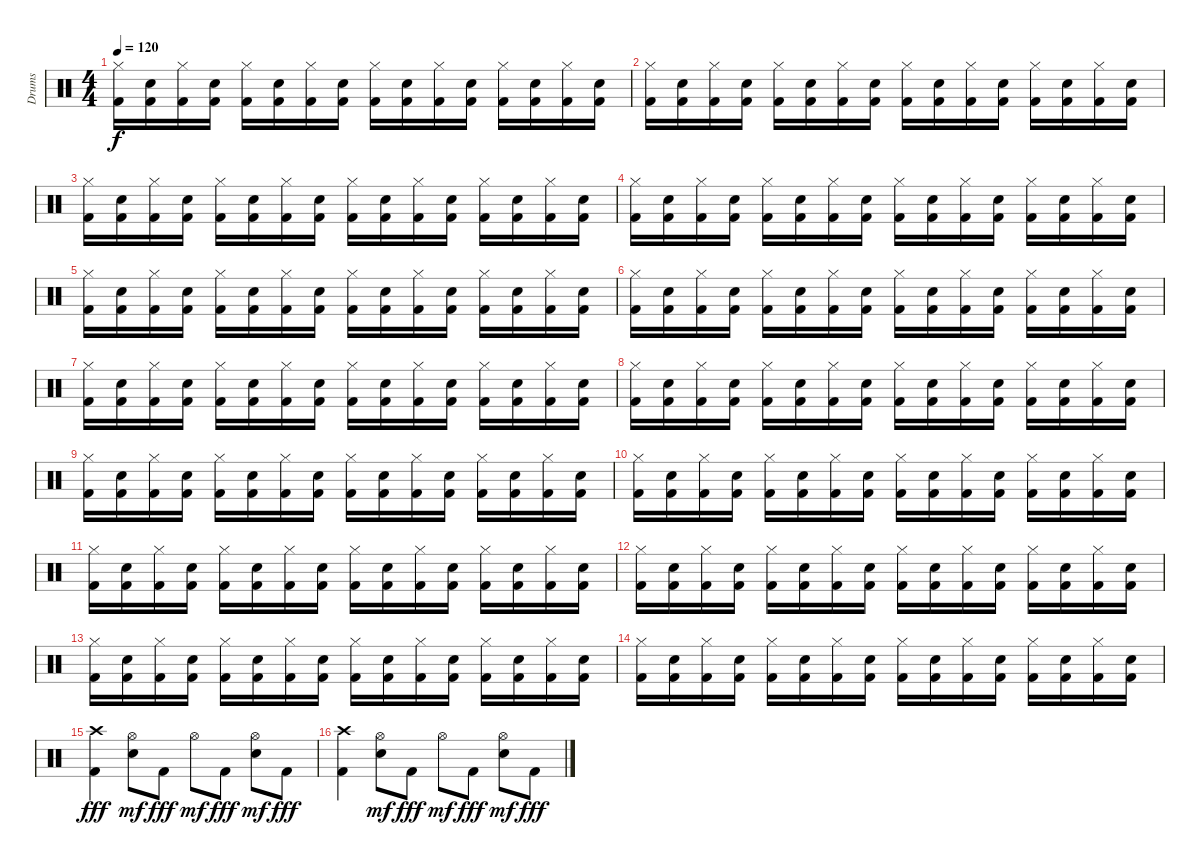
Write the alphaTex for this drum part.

\track ("Drums" "Drums") {instrument percussion}
\staff {score}
\articulation defaults
\ts (4 4)
\tempo 120
\clef neutral
\ks c
("Kick (hit) 2" "Hi-Hat (closed)").16{dy f} ("Kick (hit) 2" "Snare (hit) 2").16 ("Kick (hit) 2" "Hi-Hat (closed)").16 ("Kick (hit) 2" "Snare (hit) 2").16 ("Kick (hit) 2" "Hi-Hat (closed)").16 ("Kick (hit) 2" "Snare (hit) 2").16 ("Kick (hit) 2" "Hi-Hat (closed)").16 ("Kick (hit) 2" "Snare (hit) 2").16 ("Kick (hit) 2" "Hi-Hat (closed)").16 ("Kick (hit) 2" "Snare (hit) 2").16 ("Kick (hit) 2" "Hi-Hat (closed)").16 ("Kick (hit) 2" "Snare (hit) 2").16 ("Kick (hit) 2" "Hi-Hat (closed)").16 ("Kick (hit) 2" "Snare (hit) 2").16 ("Kick (hit) 2" "Hi-Hat (closed)").16 ("Kick (hit) 2" "Snare (hit) 2").16 |
("Kick (hit) 2" "Hi-Hat (closed)").16 ("Kick (hit) 2" "Snare (hit) 2").16 ("Kick (hit) 2" "Hi-Hat (closed)").16 ("Kick (hit) 2" "Snare (hit) 2").16 ("Kick (hit) 2" "Hi-Hat (closed)").16 ("Kick (hit) 2" "Snare (hit) 2").16 ("Kick (hit) 2" "Hi-Hat (closed)").16 ("Kick (hit) 2" "Snare (hit) 2").16 ("Kick (hit) 2" "Hi-Hat (closed)").16 ("Kick (hit) 2" "Snare (hit) 2").16 ("Kick (hit) 2" "Hi-Hat (closed)").16 ("Kick (hit) 2" "Snare (hit) 2").16 ("Kick (hit) 2" "Hi-Hat (closed)").16 ("Kick (hit) 2" "Snare (hit) 2").16 ("Kick (hit) 2" "Hi-Hat (closed)").16 ("Kick (hit) 2" "Snare (hit) 2").16 |
("Kick (hit) 2" "Hi-Hat (closed)").16 ("Kick (hit) 2" "Snare (hit) 2").16 ("Kick (hit) 2" "Hi-Hat (closed)").16 ("Kick (hit) 2" "Snare (hit) 2").16 ("Kick (hit) 2" "Hi-Hat (closed)").16 ("Kick (hit) 2" "Snare (hit) 2").16 ("Kick (hit) 2" "Hi-Hat (closed)").16 ("Kick (hit) 2" "Snare (hit) 2").16 ("Kick (hit) 2" "Hi-Hat (closed)").16 ("Kick (hit) 2" "Snare (hit) 2").16 ("Kick (hit) 2" "Hi-Hat (closed)").16 ("Kick (hit) 2" "Snare (hit) 2").16 ("Kick (hit) 2" "Hi-Hat (closed)").16 ("Kick (hit) 2" "Snare (hit) 2").16 ("Kick (hit) 2" "Hi-Hat (closed)").16 ("Kick (hit) 2" "Snare (hit) 2").16 |
("Kick (hit) 2" "Hi-Hat (closed)").16 ("Kick (hit) 2" "Snare (hit) 2").16 ("Kick (hit) 2" "Hi-Hat (closed)").16 ("Kick (hit) 2" "Snare (hit) 2").16 ("Kick (hit) 2" "Hi-Hat (closed)").16 ("Kick (hit) 2" "Snare (hit) 2").16 ("Kick (hit) 2" "Hi-Hat (closed)").16 ("Kick (hit) 2" "Snare (hit) 2").16 ("Kick (hit) 2" "Hi-Hat (closed)").16 ("Kick (hit) 2" "Snare (hit) 2").16 ("Kick (hit) 2" "Hi-Hat (closed)").16 ("Kick (hit) 2" "Snare (hit) 2").16 ("Kick (hit) 2" "Hi-Hat (closed)").16 ("Kick (hit) 2" "Snare (hit) 2").16 ("Kick (hit) 2" "Hi-Hat (closed)").16 ("Kick (hit) 2" "Snare (hit) 2").16 |
("Kick (hit) 2" "Hi-Hat (closed)").16 ("Kick (hit) 2" "Snare (hit) 2").16 ("Kick (hit) 2" "Hi-Hat (closed)").16 ("Kick (hit) 2" "Snare (hit) 2").16 ("Kick (hit) 2" "Hi-Hat (closed)").16 ("Kick (hit) 2" "Snare (hit) 2").16 ("Kick (hit) 2" "Hi-Hat (closed)").16 ("Kick (hit) 2" "Snare (hit) 2").16 ("Kick (hit) 2" "Hi-Hat (closed)").16 ("Kick (hit) 2" "Snare (hit) 2").16 ("Kick (hit) 2" "Hi-Hat (closed)").16 ("Kick (hit) 2" "Snare (hit) 2").16 ("Kick (hit) 2" "Hi-Hat (closed)").16 ("Kick (hit) 2" "Snare (hit) 2").16 ("Kick (hit) 2" "Hi-Hat (closed)").16 ("Kick (hit) 2" "Snare (hit) 2").16 |
("Kick (hit) 2" "Hi-Hat (closed)").16 ("Kick (hit) 2" "Snare (hit) 2").16 ("Kick (hit) 2" "Hi-Hat (closed)").16 ("Kick (hit) 2" "Snare (hit) 2").16 ("Kick (hit) 2" "Hi-Hat (closed)").16 ("Kick (hit) 2" "Snare (hit) 2").16 ("Kick (hit) 2" "Hi-Hat (closed)").16 ("Kick (hit) 2" "Snare (hit) 2").16 ("Kick (hit) 2" "Hi-Hat (closed)").16 ("Kick (hit) 2" "Snare (hit) 2").16 ("Kick (hit) 2" "Hi-Hat (closed)").16 ("Kick (hit) 2" "Snare (hit) 2").16 ("Kick (hit) 2" "Hi-Hat (closed)").16 ("Kick (hit) 2" "Snare (hit) 2").16 ("Kick (hit) 2" "Hi-Hat (closed)").16 ("Kick (hit) 2" "Snare (hit) 2").16 |
("Kick (hit) 2" "Hi-Hat (closed)").16 ("Kick (hit) 2" "Snare (hit) 2").16 ("Kick (hit) 2" "Hi-Hat (closed)").16 ("Kick (hit) 2" "Snare (hit) 2").16 ("Kick (hit) 2" "Hi-Hat (closed)").16 ("Kick (hit) 2" "Snare (hit) 2").16 ("Kick (hit) 2" "Hi-Hat (closed)").16 ("Kick (hit) 2" "Snare (hit) 2").16 ("Kick (hit) 2" "Hi-Hat (closed)").16 ("Kick (hit) 2" "Snare (hit) 2").16 ("Kick (hit) 2" "Hi-Hat (closed)").16 ("Kick (hit) 2" "Snare (hit) 2").16 ("Kick (hit) 2" "Hi-Hat (closed)").16 ("Kick (hit) 2" "Snare (hit) 2").16 ("Kick (hit) 2" "Hi-Hat (closed)").16 ("Kick (hit) 2" "Snare (hit) 2").16 |
("Kick (hit) 2" "Hi-Hat (closed)").16 ("Kick (hit) 2" "Snare (hit) 2").16 ("Kick (hit) 2" "Hi-Hat (closed)").16 ("Kick (hit) 2" "Snare (hit) 2").16 ("Kick (hit) 2" "Hi-Hat (closed)").16 ("Kick (hit) 2" "Snare (hit) 2").16 ("Kick (hit) 2" "Hi-Hat (closed)").16 ("Kick (hit) 2" "Snare (hit) 2").16 ("Kick (hit) 2" "Hi-Hat (closed)").16 ("Kick (hit) 2" "Snare (hit) 2").16 ("Kick (hit) 2" "Hi-Hat (closed)").16 ("Kick (hit) 2" "Snare (hit) 2").16 ("Kick (hit) 2" "Hi-Hat (closed)").16 ("Kick (hit) 2" "Snare (hit) 2").16 ("Kick (hit) 2" "Hi-Hat (closed)").16 ("Kick (hit) 2" "Snare (hit) 2").16 |
("Kick (hit) 2" "Hi-Hat (closed)").16 ("Kick (hit) 2" "Snare (hit) 2").16 ("Kick (hit) 2" "Hi-Hat (closed)").16 ("Kick (hit) 2" "Snare (hit) 2").16 ("Kick (hit) 2" "Hi-Hat (closed)").16 ("Kick (hit) 2" "Snare (hit) 2").16 ("Kick (hit) 2" "Hi-Hat (closed)").16 ("Kick (hit) 2" "Snare (hit) 2").16 ("Kick (hit) 2" "Hi-Hat (closed)").16 ("Kick (hit) 2" "Snare (hit) 2").16 ("Kick (hit) 2" "Hi-Hat (closed)").16 ("Kick (hit) 2" "Snare (hit) 2").16 ("Kick (hit) 2" "Hi-Hat (closed)").16 ("Kick (hit) 2" "Snare (hit) 2").16 ("Kick (hit) 2" "Hi-Hat (closed)").16 ("Kick (hit) 2" "Snare (hit) 2").16 |
("Kick (hit) 2" "Hi-Hat (closed)").16 ("Kick (hit) 2" "Snare (hit) 2").16 ("Kick (hit) 2" "Hi-Hat (closed)").16 ("Kick (hit) 2" "Snare (hit) 2").16 ("Kick (hit) 2" "Hi-Hat (closed)").16 ("Kick (hit) 2" "Snare (hit) 2").16 ("Kick (hit) 2" "Hi-Hat (closed)").16 ("Kick (hit) 2" "Snare (hit) 2").16 ("Kick (hit) 2" "Hi-Hat (closed)").16 ("Kick (hit) 2" "Snare (hit) 2").16 ("Kick (hit) 2" "Hi-Hat (closed)").16 ("Kick (hit) 2" "Snare (hit) 2").16 ("Kick (hit) 2" "Hi-Hat (closed)").16 ("Kick (hit) 2" "Snare (hit) 2").16 ("Kick (hit) 2" "Hi-Hat (closed)").16 ("Kick (hit) 2" "Snare (hit) 2").16 |
("Kick (hit) 2" "Hi-Hat (closed)").16 ("Kick (hit) 2" "Snare (hit) 2").16 ("Kick (hit) 2" "Hi-Hat (closed)").16 ("Kick (hit) 2" "Snare (hit) 2").16 ("Kick (hit) 2" "Hi-Hat (closed)").16 ("Kick (hit) 2" "Snare (hit) 2").16 ("Kick (hit) 2" "Hi-Hat (closed)").16 ("Kick (hit) 2" "Snare (hit) 2").16 ("Kick (hit) 2" "Hi-Hat (closed)").16 ("Kick (hit) 2" "Snare (hit) 2").16 ("Kick (hit) 2" "Hi-Hat (closed)").16 ("Kick (hit) 2" "Snare (hit) 2").16 ("Kick (hit) 2" "Hi-Hat (closed)").16 ("Kick (hit) 2" "Snare (hit) 2").16 ("Kick (hit) 2" "Hi-Hat (closed)").16 ("Kick (hit) 2" "Snare (hit) 2").16 |
("Kick (hit) 2" "Hi-Hat (closed)").16 ("Kick (hit) 2" "Snare (hit) 2").16 ("Kick (hit) 2" "Hi-Hat (closed)").16 ("Kick (hit) 2" "Snare (hit) 2").16 ("Kick (hit) 2" "Hi-Hat (closed)").16 ("Kick (hit) 2" "Snare (hit) 2").16 ("Kick (hit) 2" "Hi-Hat (closed)").16 ("Kick (hit) 2" "Snare (hit) 2").16 ("Kick (hit) 2" "Hi-Hat (closed)").16 ("Kick (hit) 2" "Snare (hit) 2").16 ("Kick (hit) 2" "Hi-Hat (closed)").16 ("Kick (hit) 2" "Snare (hit) 2").16 ("Kick (hit) 2" "Hi-Hat (closed)").16 ("Kick (hit) 2" "Snare (hit) 2").16 ("Kick (hit) 2" "Hi-Hat (closed)").16 ("Kick (hit) 2" "Snare (hit) 2").16 |
("Kick (hit) 2" "Hi-Hat (closed)").16 ("Kick (hit) 2" "Snare (hit) 2").16 ("Kick (hit) 2" "Hi-Hat (closed)").16 ("Kick (hit) 2" "Snare (hit) 2").16 ("Kick (hit) 2" "Hi-Hat (closed)").16 ("Kick (hit) 2" "Snare (hit) 2").16 ("Kick (hit) 2" "Hi-Hat (closed)").16 ("Kick (hit) 2" "Snare (hit) 2").16 ("Kick (hit) 2" "Hi-Hat (closed)").16 ("Kick (hit) 2" "Snare (hit) 2").16 ("Kick (hit) 2" "Hi-Hat (closed)").16 ("Kick (hit) 2" "Snare (hit) 2").16 ("Kick (hit) 2" "Hi-Hat (closed)").16 ("Kick (hit) 2" "Snare (hit) 2").16 ("Kick (hit) 2" "Hi-Hat (closed)").16 ("Kick (hit) 2" "Snare (hit) 2").16 |
("Kick (hit) 2" "Hi-Hat (closed)").16 ("Kick (hit) 2" "Snare (hit) 2").16 ("Kick (hit) 2" "Hi-Hat (closed)").16 ("Kick (hit) 2" "Snare (hit) 2").16 ("Kick (hit) 2" "Hi-Hat (closed)").16 ("Kick (hit) 2" "Snare (hit) 2").16 ("Kick (hit) 2" "Hi-Hat (closed)").16 ("Kick (hit) 2" "Snare (hit) 2").16 ("Kick (hit) 2" "Hi-Hat (closed)").16 ("Kick (hit) 2" "Snare (hit) 2").16 ("Kick (hit) 2" "Hi-Hat (closed)").16 ("Kick (hit) 2" "Snare (hit) 2").16 ("Kick (hit) 2" "Hi-Hat (closed)").16 ("Kick (hit) 2" "Snare (hit) 2").16 ("Kick (hit) 2" "Hi-Hat (closed)").16 ("Kick (hit) 2" "Snare (hit) 2").16 |
("Crash high (hit)" "Kick (hit) 2").4{dy fff} ("Hi-Hat (open)" "Electric Snare (hit)").8{dy mf} "Kick (hit) 2".8{dy fff} "Hi-Hat (open)".8{dy mf} "Kick (hit) 2".8{dy fff} ("Hi-Hat (open)" "Electric Snare (hit)").8{dy mf} "Kick (hit) 2".8{dy fff} |
("Crash high (hit)" "Kick (hit) 2").4 ("Hi-Hat (open)" "Electric Snare (hit)").8{dy mf} "Kick (hit) 2".8{dy fff} "Hi-Hat (open)".8{dy mf} "Kick (hit) 2".8{dy fff} ("Hi-Hat (open)" "Electric Snare (hit)").8{dy mf} "Kick (hit) 2".8{dy fff}
